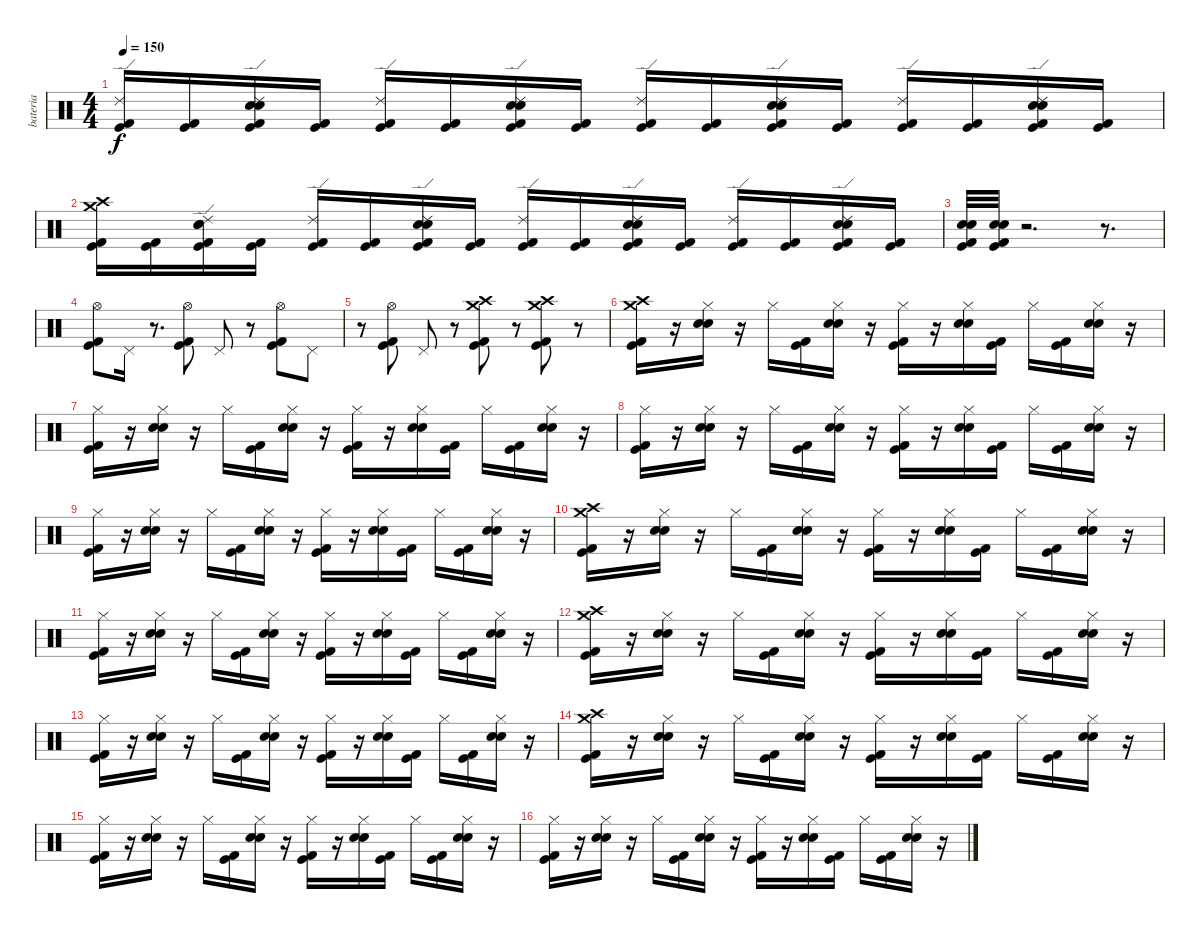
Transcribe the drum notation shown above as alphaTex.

\track ("bateria" "bateria") {instrument percussion}
\staff {score}
\articulation defaults
\ts (4 4)
\tempo 150
\clef neutral
\ks c
("Ride (edge) 2" "Kick (hit) 2" "Kick (hit)").16{dy f} ("Kick (hit) 2" "Kick (hit)").16 ("Ride (edge) 2" "Snare (hit) 2" "Electric Snare (hit)" "Kick (hit) 2" "Kick (hit)").16 ("Kick (hit) 2" "Kick (hit)").16 ("Ride (edge) 2" "Kick (hit) 2" "Kick (hit)").16 ("Kick (hit) 2" "Kick (hit)").16 ("Ride (edge) 2" "Electric Snare (hit)" "Snare (hit) 2" "Kick (hit) 2" "Kick (hit)").16 ("Kick (hit) 2" "Kick (hit)").16 ("Ride (edge) 2" "Kick (hit) 2" "Kick (hit)").16 ("Kick (hit) 2" "Kick (hit)").16 ("Ride (edge) 2" "Snare (hit) 2" "Electric Snare (hit)" "Kick (hit) 2" "Kick (hit)").16 ("Kick (hit) 2" "Kick (hit)").16 ("Ride (edge) 2" "Kick (hit) 2" "Kick (hit)").16 ("Kick (hit) 2" "Kick (hit)").16 ("Ride (edge) 2" "Electric Snare (hit)" "Snare (hit) 2" "Kick (hit) 2" "Kick (hit)").16 ("Kick (hit) 2" "Kick (hit)").16 |
("Crash high (hit)" "Crash medium (hit)" "Kick (hit) 2" "Kick (hit)").16 ("Kick (hit) 2" "Kick (hit)").16 ("Ride (edge) 2" "Snare (hit) 2" "Electric Snare (hit)" "Kick (hit) 2" "Kick (hit)").16 ("Kick (hit) 2" "Kick (hit)").16 ("Ride (edge) 2" "Kick (hit) 2" "Kick (hit)").16 ("Kick (hit) 2" "Kick (hit)").16 ("Ride (edge) 2" "Electric Snare (hit)" "Snare (hit) 2" "Kick (hit) 2" "Kick (hit)").16 ("Kick (hit) 2" "Kick (hit)").16 ("Ride (edge) 2" "Kick (hit) 2" "Kick (hit)").16 ("Kick (hit) 2" "Kick (hit)").16 ("Ride (edge) 2" "Snare (hit) 2" "Electric Snare (hit)" "Kick (hit) 2" "Kick (hit)").16 ("Kick (hit) 2" "Kick (hit)").16 ("Ride (edge) 2" "Kick (hit) 2" "Kick (hit)").16 ("Kick (hit) 2" "Kick (hit)").16 ("Ride (edge) 2" "Electric Snare (hit)" "Snare (hit) 2" "Kick (hit) 2" "Kick (hit)").16 ("Kick (hit) 2" "Kick (hit)").16 |
("Electric Snare (hit)" "Kick (hit) 2" "Kick (hit)" "Snare (hit) 2").32 ("Electric Snare (hit)" "Kick (hit) 2" "Kick (hit)" "Snare (hit) 2").32 r.2{d} r.8{d} |
("Kick (hit) 2" "Kick (hit)" "Hi-Hat (open)").8 "Pedal Hi-Hat (hit)".16 r.8{d} ("Kick (hit) 2" "Kick (hit)" "Hi-Hat (open)").8 "Pedal Hi-Hat (hit)".8 r.8 ("Kick (hit)" "Hi-Hat (open)" "Kick (hit) 2").8 "Pedal Hi-Hat (hit)".8 |
r.8 ("Hi-Hat (open)" "Kick (hit)" "Kick (hit) 2").8 "Pedal Hi-Hat (hit)".8 r.8 ("Crash high (hit)" "Crash medium (hit)" "Kick (hit)" "Kick (hit) 2").8 r.8 ("Crash high (hit)" "Crash medium (hit)" "Kick (hit) 2" "Kick (hit)").8 r.8 |
("Crash medium (hit)" "Crash high (hit)" "Kick (hit) 2" "Kick (hit)").16 r.16 ("Hi-Hat (closed)" "Electric Snare (hit)" "Snare (hit) 2").16 r.16 "Hi-Hat (closed)".16 ("Kick (hit) 2" "Kick (hit)").16 ("Hi-Hat (closed)" "Electric Snare (hit)" "Snare (hit) 2").16 r.16 ("Hi-Hat (closed)" "Kick (hit) 2" "Kick (hit)").16 r.16 ("Hi-Hat (closed)" "Electric Snare (hit)" "Snare (hit) 2").16 ("Kick (hit) 2" "Kick (hit)").16 "Hi-Hat (closed)".16 ("Kick (hit) 2" "Kick (hit)").16 ("Hi-Hat (closed)" "Electric Snare (hit)" "Snare (hit) 2").16 r.16 |
("Hi-Hat (closed)" "Kick (hit) 2" "Kick (hit)").16 r.16 ("Hi-Hat (closed)" "Electric Snare (hit)" "Snare (hit) 2").16 r.16 "Hi-Hat (closed)".16 ("Kick (hit) 2" "Kick (hit)").16 ("Hi-Hat (closed)" "Electric Snare (hit)" "Snare (hit) 2").16 r.16 ("Hi-Hat (closed)" "Kick (hit) 2" "Kick (hit)").16 r.16 ("Hi-Hat (closed)" "Electric Snare (hit)" "Snare (hit) 2").16 ("Kick (hit) 2" "Kick (hit)").16 "Hi-Hat (closed)".16 ("Kick (hit) 2" "Kick (hit)").16 ("Hi-Hat (closed)" "Electric Snare (hit)" "Snare (hit) 2").16 r.16 |
("Hi-Hat (closed)" "Kick (hit) 2" "Kick (hit)").16 r.16 ("Hi-Hat (closed)" "Electric Snare (hit)" "Snare (hit) 2").16 r.16 "Hi-Hat (closed)".16 ("Kick (hit) 2" "Kick (hit)").16 ("Hi-Hat (closed)" "Electric Snare (hit)" "Snare (hit) 2").16 r.16 ("Hi-Hat (closed)" "Kick (hit) 2" "Kick (hit)").16 r.16 ("Hi-Hat (closed)" "Electric Snare (hit)" "Snare (hit) 2").16 ("Kick (hit) 2" "Kick (hit)").16 "Hi-Hat (closed)".16 ("Kick (hit) 2" "Kick (hit)").16 ("Hi-Hat (closed)" "Electric Snare (hit)" "Snare (hit) 2").16 r.16 |
("Hi-Hat (closed)" "Kick (hit) 2" "Kick (hit)").16 r.16 ("Hi-Hat (closed)" "Electric Snare (hit)" "Snare (hit) 2").16 r.16 "Hi-Hat (closed)".16 ("Kick (hit) 2" "Kick (hit)").16 ("Hi-Hat (closed)" "Electric Snare (hit)" "Snare (hit) 2").16 r.16 ("Hi-Hat (closed)" "Kick (hit) 2" "Kick (hit)").16 r.16 ("Hi-Hat (closed)" "Electric Snare (hit)" "Snare (hit) 2").16 ("Kick (hit) 2" "Kick (hit)").16 "Hi-Hat (closed)".16 ("Kick (hit) 2" "Kick (hit)").16 ("Hi-Hat (closed)" "Electric Snare (hit)" "Snare (hit) 2").16 r.16 |
("Crash medium (hit)" "Crash high (hit)" "Kick (hit) 2" "Kick (hit)").16 r.16 ("Hi-Hat (closed)" "Electric Snare (hit)" "Snare (hit) 2").16 r.16 "Hi-Hat (closed)".16 ("Kick (hit) 2" "Kick (hit)").16 ("Hi-Hat (closed)" "Electric Snare (hit)" "Snare (hit) 2").16 r.16 ("Hi-Hat (closed)" "Kick (hit) 2" "Kick (hit)").16 r.16 ("Hi-Hat (closed)" "Electric Snare (hit)" "Snare (hit) 2").16 ("Kick (hit) 2" "Kick (hit)").16 "Hi-Hat (closed)".16 ("Kick (hit) 2" "Kick (hit)").16 ("Hi-Hat (closed)" "Electric Snare (hit)" "Snare (hit) 2").16 r.16 |
("Hi-Hat (closed)" "Kick (hit) 2" "Kick (hit)").16 r.16 ("Hi-Hat (closed)" "Electric Snare (hit)" "Snare (hit) 2").16 r.16 "Hi-Hat (closed)".16 ("Kick (hit) 2" "Kick (hit)").16 ("Hi-Hat (closed)" "Electric Snare (hit)" "Snare (hit) 2").16 r.16 ("Hi-Hat (closed)" "Kick (hit) 2" "Kick (hit)").16 r.16 ("Hi-Hat (closed)" "Electric Snare (hit)" "Snare (hit) 2").16 ("Kick (hit) 2" "Kick (hit)").16 "Hi-Hat (closed)".16 ("Kick (hit) 2" "Kick (hit)").16 ("Hi-Hat (closed)" "Electric Snare (hit)" "Snare (hit) 2").16 r.16 |
("Crash medium (hit)" "Crash high (hit)" "Kick (hit) 2" "Kick (hit)").16 r.16 ("Hi-Hat (closed)" "Electric Snare (hit)" "Snare (hit) 2").16 r.16 "Hi-Hat (closed)".16 ("Kick (hit) 2" "Kick (hit)").16 ("Hi-Hat (closed)" "Electric Snare (hit)" "Snare (hit) 2").16 r.16 ("Hi-Hat (closed)" "Kick (hit) 2" "Kick (hit)").16 r.16 ("Hi-Hat (closed)" "Electric Snare (hit)" "Snare (hit) 2").16 ("Kick (hit) 2" "Kick (hit)").16 "Hi-Hat (closed)".16 ("Kick (hit) 2" "Kick (hit)").16 ("Hi-Hat (closed)" "Electric Snare (hit)" "Snare (hit) 2").16 r.16 |
("Hi-Hat (closed)" "Kick (hit) 2" "Kick (hit)").16 r.16 ("Hi-Hat (closed)" "Electric Snare (hit)" "Snare (hit) 2").16 r.16 "Hi-Hat (closed)".16 ("Kick (hit) 2" "Kick (hit)").16 ("Hi-Hat (closed)" "Electric Snare (hit)" "Snare (hit) 2").16 r.16 ("Hi-Hat (closed)" "Kick (hit) 2" "Kick (hit)").16 r.16 ("Hi-Hat (closed)" "Electric Snare (hit)" "Snare (hit) 2").16 ("Kick (hit) 2" "Kick (hit)").16 "Hi-Hat (closed)".16 ("Kick (hit) 2" "Kick (hit)").16 ("Hi-Hat (closed)" "Electric Snare (hit)" "Snare (hit) 2").16 r.16 |
("Crash medium (hit)" "Crash high (hit)" "Kick (hit) 2" "Kick (hit)").16 r.16 ("Hi-Hat (closed)" "Electric Snare (hit)" "Snare (hit) 2").16 r.16 "Hi-Hat (closed)".16 ("Kick (hit) 2" "Kick (hit)").16 ("Hi-Hat (closed)" "Electric Snare (hit)" "Snare (hit) 2").16 r.16 ("Hi-Hat (closed)" "Kick (hit) 2" "Kick (hit)").16 r.16 ("Hi-Hat (closed)" "Electric Snare (hit)" "Snare (hit) 2").16 ("Kick (hit) 2" "Kick (hit)").16 "Hi-Hat (closed)".16 ("Kick (hit) 2" "Kick (hit)").16 ("Hi-Hat (closed)" "Electric Snare (hit)" "Snare (hit) 2").16 r.16 |
("Hi-Hat (closed)" "Kick (hit) 2" "Kick (hit)").16 r.16 ("Hi-Hat (closed)" "Electric Snare (hit)" "Snare (hit) 2").16 r.16 "Hi-Hat (closed)".16 ("Kick (hit) 2" "Kick (hit)").16 ("Hi-Hat (closed)" "Electric Snare (hit)" "Snare (hit) 2").16 r.16 ("Hi-Hat (closed)" "Kick (hit) 2" "Kick (hit)").16 r.16 ("Hi-Hat (closed)" "Electric Snare (hit)" "Snare (hit) 2").16 ("Kick (hit) 2" "Kick (hit)").16 "Hi-Hat (closed)".16 ("Kick (hit) 2" "Kick (hit)").16 ("Hi-Hat (closed)" "Electric Snare (hit)" "Snare (hit) 2").16 r.16 |
("Hi-Hat (closed)" "Kick (hit) 2" "Kick (hit)").16 r.16 ("Hi-Hat (closed)" "Electric Snare (hit)" "Snare (hit) 2").16 r.16 "Hi-Hat (closed)".16 ("Kick (hit) 2" "Kick (hit)").16 ("Hi-Hat (closed)" "Electric Snare (hit)" "Snare (hit) 2").16 r.16 ("Hi-Hat (closed)" "Kick (hit) 2" "Kick (hit)").16 r.16 ("Hi-Hat (closed)" "Electric Snare (hit)" "Snare (hit) 2").16 ("Kick (hit) 2" "Kick (hit)").16 "Hi-Hat (closed)".16 ("Kick (hit) 2" "Kick (hit)").16 ("Hi-Hat (closed)" "Electric Snare (hit)" "Snare (hit) 2").16 r.16
